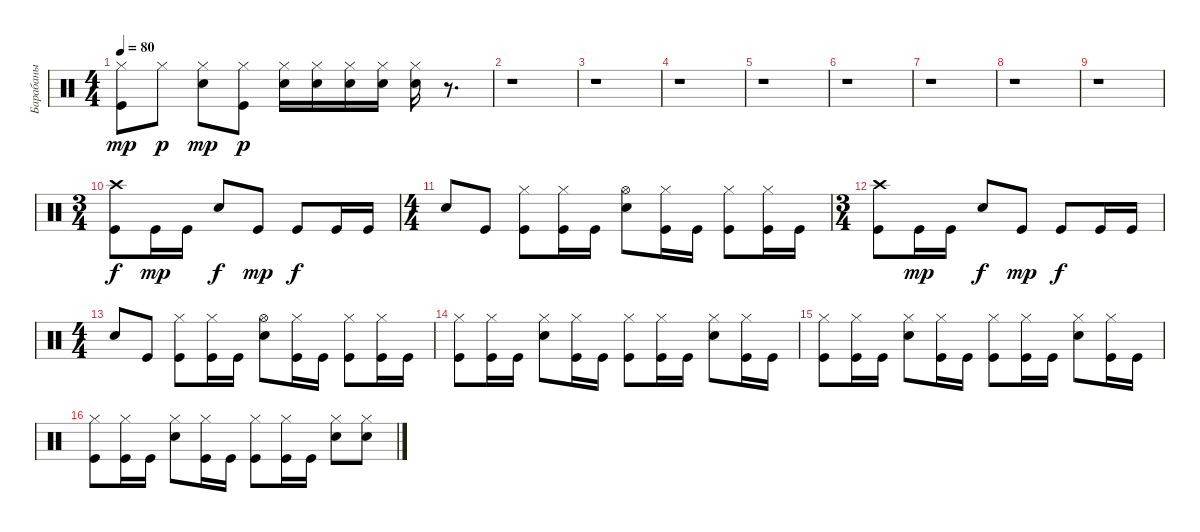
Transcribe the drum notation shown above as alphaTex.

\track ("Барабаны" "Барабаны") {instrument percussion}
\staff {score}
\articulation defaults
\ts (4 4)
\tempo 80
\clef neutral
\ks c
("Kick (hit)" "Hi-Hat (closed)").8{dy mp} "Hi-Hat (closed)".8{dy p} ("Snare (hit) 2" "Hi-Hat (closed)").8{dy mp} ("Kick (hit)" "Hi-Hat (closed)").8{dy p} ("Hi-Hat (closed)" "Snare (hit) 2").16 ("Hi-Hat (closed)" "Snare (hit) 2").16 ("Hi-Hat (closed)" "Snare (hit) 2").16 ("Hi-Hat (closed)" "Snare (hit) 2").16 ("Hi-Hat (closed)" "Snare (hit) 2").16 r.8{d} |
r.1 |
r.1 |
r.1 |
r.1 |
r.1 |
r.1 |
r.1 |
r.1 |
\ts (3 4)
("Crash high (hit)" "Kick (hit)").8{dy f} "Kick (hit)".16{dy mp} "Kick (hit)".16 "Snare (hit) 2".8{dy f} "Kick (hit)".8{dy mp} "Kick (hit)".8{dy f} "Kick (hit)".16 "Kick (hit)".16 |
\ts (4 4)
"Snare (hit) 2".8 "Kick (hit)".8 ("Hi-Hat (closed)" "Kick (hit)").8 ("Hi-Hat (closed)" "Kick (hit)").16 "Kick (hit)".16 ("Hi-Hat (open)" "Snare (hit) 2").8 ("Hi-Hat (closed)" "Kick (hit)").16 "Kick (hit)".16 ("Hi-Hat (closed)" "Kick (hit)").8 ("Hi-Hat (closed)" "Kick (hit)").16 "Kick (hit)".16 |
\ts (3 4)
("Crash high (hit)" "Kick (hit)").8 "Kick (hit)".16{dy mp} "Kick (hit)".16 "Snare (hit) 2".8{dy f} "Kick (hit)".8{dy mp} "Kick (hit)".8{dy f} "Kick (hit)".16 "Kick (hit)".16 |
\ts (4 4)
"Snare (hit) 2".8 "Kick (hit)".8 ("Hi-Hat (closed)" "Kick (hit)").8 ("Hi-Hat (closed)" "Kick (hit)").16 "Kick (hit)".16 ("Hi-Hat (open)" "Snare (hit) 2").8 ("Hi-Hat (closed)" "Kick (hit)").16 "Kick (hit)".16 ("Hi-Hat (closed)" "Kick (hit)").8 ("Hi-Hat (closed)" "Kick (hit)").16 "Kick (hit)".16 |
("Hi-Hat (closed)" "Kick (hit)").8 ("Hi-Hat (closed)" "Kick (hit)").16 "Kick (hit)".16 ("Hi-Hat (closed)" "Snare (hit) 2").8 ("Hi-Hat (closed)" "Kick (hit)").16 "Kick (hit)".16 ("Hi-Hat (closed)" "Kick (hit)").8 ("Hi-Hat (closed)" "Kick (hit)").16 "Kick (hit)".16 ("Hi-Hat (closed)" "Snare (hit) 2").8 ("Hi-Hat (closed)" "Kick (hit)").16 "Kick (hit)".16 |
("Hi-Hat (closed)" "Kick (hit)").8 ("Hi-Hat (closed)" "Kick (hit)").16 "Kick (hit)".16 ("Hi-Hat (closed)" "Snare (hit) 2").8 ("Hi-Hat (closed)" "Kick (hit)").16 "Kick (hit)".16 ("Hi-Hat (closed)" "Kick (hit)").8 ("Hi-Hat (closed)" "Kick (hit)").16 "Kick (hit)".16 ("Hi-Hat (closed)" "Snare (hit) 2").8 ("Hi-Hat (closed)" "Kick (hit)").16 "Kick (hit)".16 |
("Hi-Hat (closed)" "Kick (hit)").8 ("Hi-Hat (closed)" "Kick (hit)").16 "Kick (hit)".16 ("Hi-Hat (closed)" "Snare (hit) 2").8 ("Hi-Hat (closed)" "Kick (hit)").16 "Kick (hit)".16 ("Hi-Hat (closed)" "Kick (hit)").8 ("Hi-Hat (closed)" "Kick (hit)").16 "Kick (hit)".16 ("Hi-Hat (closed)" "Snare (hit) 2").8 ("Snare (hit) 2" "Hi-Hat (closed)").8
